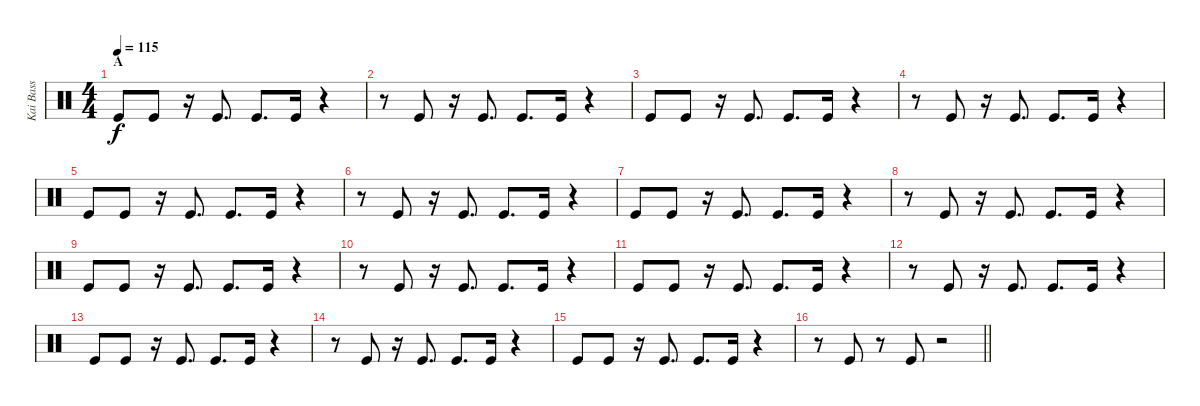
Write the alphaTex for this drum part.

\track ("Kai Bass" "Kai Bass") {instrument percussion}
\staff {score}
\articulation defaults
\ts (4 4)
\section ("" "A")
\tempo 115
\clef neutral
\ks c "Kick (hit)".8{dy f} "Kick (hit)".8
r.16 "Kick (hit)".8{d} "Kick (hit)".8{d} "Kick (hit)".16 r.4 |
r.8 "Kick (hit)".8 r.16 "Kick (hit)".8{d} "Kick (hit)".8{d} "Kick (hit)".16 r.4 |
"Kick (hit)".8 "Kick (hit)".8 r.16 "Kick (hit)".8{d} "Kick (hit)".8{d} "Kick (hit)".16 r.4 |
r.8 "Kick (hit)".8 r.16 "Kick (hit)".8{d} "Kick (hit)".8{d} "Kick (hit)".16 r.4 |
"Kick (hit)".8 "Kick (hit)".8 r.16 "Kick (hit)".8{d} "Kick (hit)".8{d} "Kick (hit)".16 r.4 |
r.8 "Kick (hit)".8 r.16 "Kick (hit)".8{d} "Kick (hit)".8{d} "Kick (hit)".16 r.4 |
"Kick (hit)".8 "Kick (hit)".8 r.16 "Kick (hit)".8{d} "Kick (hit)".8{d} "Kick (hit)".16 r.4 |
r.8 "Kick (hit)".8 r.16 "Kick (hit)".8{d} "Kick (hit)".8{d} "Kick (hit)".16 r.4 |
"Kick (hit)".8 "Kick (hit)".8 r.16 "Kick (hit)".8{d} "Kick (hit)".8{d} "Kick (hit)".16 r.4 |
r.8 "Kick (hit)".8 r.16 "Kick (hit)".8{d} "Kick (hit)".8{d} "Kick (hit)".16 r.4 |
"Kick (hit)".8 "Kick (hit)".8 r.16 "Kick (hit)".8{d} "Kick (hit)".8{d} "Kick (hit)".16 r.4 |
r.8 "Kick (hit)".8 r.16 "Kick (hit)".8{d} "Kick (hit)".8{d} "Kick (hit)".16 r.4 |
"Kick (hit)".8 "Kick (hit)".8 r.16 "Kick (hit)".8{d} "Kick (hit)".8{d} "Kick (hit)".16 r.4 |
r.8 "Kick (hit)".8 r.16 "Kick (hit)".8{d} "Kick (hit)".8{d} "Kick (hit)".16 r.4 |
"Kick (hit)".8 "Kick (hit)".8 r.16 "Kick (hit)".8{d} "Kick (hit)".8{d} "Kick (hit)".16 r.4 |
\barLineRight lightlight
r.8 "Kick (hit)".8 r.8 "Kick (hit)".8 r.2
